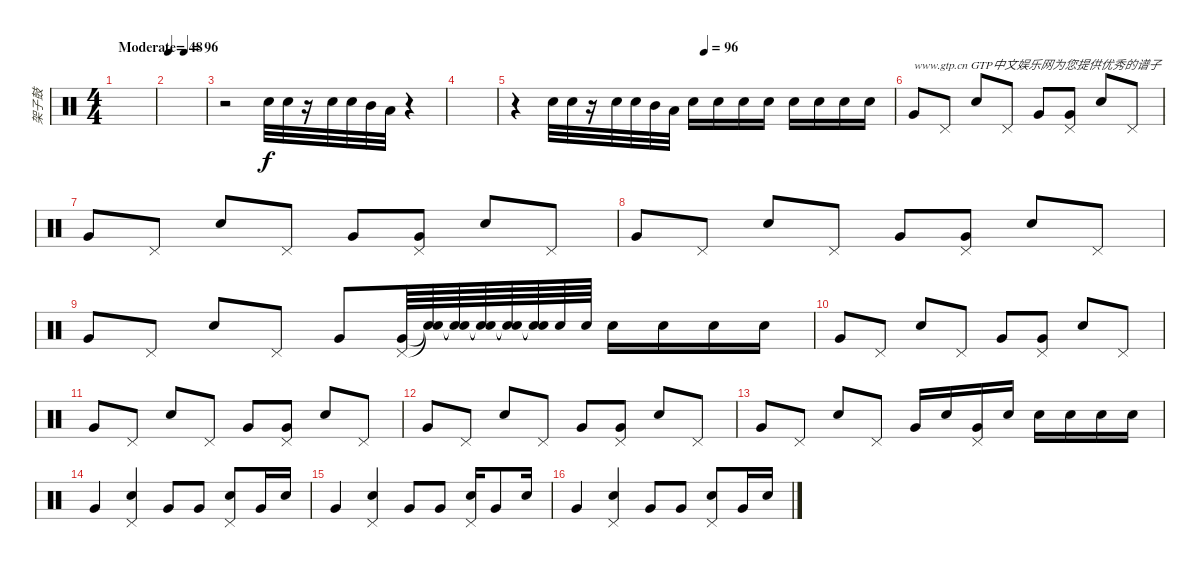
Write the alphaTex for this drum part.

\track ("架子鼓" "架子鼓") {instrument percussion}
\staff {score}
\articulation defaults
\ts (4 4)
\tempo (96 "Moderate")
\clef neutral
\ks c
|
\tempo 48
|
r.2 "Snare (hit) 2".32 "Snare (hit) 2".32 r.16 "Snare (hit) 2".32 "Snare (hit) 2".32 "Mid Tom (hit)".32 "Low Tom (hit)".32 r.4 |
|
\tempo (96 0.5)
r.4 "Snare (hit) 2".32 "Snare (hit) 2".32 r.16 "Snare (hit) 2".32 "Snare (hit) 2".32 "Mid Tom (hit)".32 "Low Tom (hit)".32 "Snare (hit) 2".16 "Snare (hit) 2".16 "Snare (hit) 2".16 "Snare (hit) 2".16 "Snare (hit) 2".16 "Snare (hit) 2".16 "Snare (hit) 2".16 "Snare (hit) 2".16 |
"Very Low Tom (hit)".8{txt "www.gtp.cn GTP中文娱乐网为您提供优秀的谱子"} "Pedal Hi-Hat (hit)".8 "Snare (hit) 2".8 "Pedal Hi-Hat (hit)".8 "Very Low Tom (hit)".8 ("Pedal Hi-Hat (hit)" "Very Low Tom (hit)").8 "Snare (hit) 2".8 "Pedal Hi-Hat (hit)".8 |
"Very Low Tom (hit)".8 "Pedal Hi-Hat (hit)".8 "Snare (hit) 2".8 "Pedal Hi-Hat (hit)".8 "Very Low Tom (hit)".8 ("Pedal Hi-Hat (hit)" "Very Low Tom (hit)").8 "Snare (hit) 2".8 "Pedal Hi-Hat (hit)".8 |
"Very Low Tom (hit)".8 "Pedal Hi-Hat (hit)".8 "Snare (hit) 2".8 "Pedal Hi-Hat (hit)".8 "Very Low Tom (hit)".8 ("Pedal Hi-Hat (hit)" "Very Low Tom (hit)").8 "Snare (hit) 2".8 "Pedal Hi-Hat (hit)".8 |
"Very Low Tom (hit)".8 "Pedal Hi-Hat (hit)".8 "Snare (hit) 2".8 "Pedal Hi-Hat (hit)".8 "Very Low Tom (hit)".8 ("Pedal Hi-Hat (hit)" "Very Low Tom (hit)").64 ("Snare (hit)"{t} "Snare (hit)"{t}).64 ("Snare (hit)"{t} "Snare (hit)"{t}).64 ("Snare (hit)"{t} "Snare (hit)"{t}).64 ("Snare (hit)"{t} "Snare (hit)"{t}).64 ("Snare (hit)"{t} "Snare (hit)"{t}).64 "Snare (hit) 2".64 "Snare (hit) 2".64 "Snare (hit) 2".16 "Snare (hit) 2".16 "Snare (hit) 2".16 "Snare (hit) 2".16 |
"Very Low Tom (hit)".8 "Pedal Hi-Hat (hit)".8 "Snare (hit) 2".8 "Pedal Hi-Hat (hit)".8 "Very Low Tom (hit)".8 ("Pedal Hi-Hat (hit)" "Very Low Tom (hit)").8 "Snare (hit) 2".8 "Pedal Hi-Hat (hit)".8 |
"Very Low Tom (hit)".8 "Pedal Hi-Hat (hit)".8 "Snare (hit) 2".8 "Pedal Hi-Hat (hit)".8 "Very Low Tom (hit)".8 ("Pedal Hi-Hat (hit)" "Very Low Tom (hit)").8 "Snare (hit) 2".8 "Pedal Hi-Hat (hit)".8 |
"Very Low Tom (hit)".8 "Pedal Hi-Hat (hit)".8 "Snare (hit) 2".8 "Pedal Hi-Hat (hit)".8 "Very Low Tom (hit)".8 ("Pedal Hi-Hat (hit)" "Very Low Tom (hit)").8 "Snare (hit) 2".8 "Pedal Hi-Hat (hit)".8 |
"Very Low Tom (hit)".8 "Pedal Hi-Hat (hit)".8 "Snare (hit) 2".8 "Pedal Hi-Hat (hit)".8 "Very Low Tom (hit)".16 "Snare (hit) 2".16 ("Pedal Hi-Hat (hit)" "Very Low Tom (hit)").16 "Snare (hit) 2".16 "Snare (hit) 2".16 "Snare (hit) 2".16 "Snare (hit) 2".16 "Snare (hit) 2".16 |
"Very Low Tom (hit)".4 ("Pedal Hi-Hat (hit)" "Snare (hit) 2").4 "Very Low Tom (hit)".8 "Very Low Tom (hit)".8 ("Pedal Hi-Hat (hit)" "Snare (hit) 2").8 "Very Low Tom (hit)".16 "Snare (hit) 2".16 |
"Very Low Tom (hit)".4 ("Pedal Hi-Hat (hit)" "Snare (hit) 2").4 "Very Low Tom (hit)".8 "Very Low Tom (hit)".8 ("Pedal Hi-Hat (hit)" "Snare (hit) 2").16 "Very Low Tom (hit)".8 "Snare (hit) 2".16 |
"Very Low Tom (hit)".4 ("Pedal Hi-Hat (hit)" "Snare (hit) 2").4 "Very Low Tom (hit)".8 "Very Low Tom (hit)".8 ("Pedal Hi-Hat (hit)" "Snare (hit) 2").8 "Very Low Tom (hit)".16 "Snare (hit) 2".16
